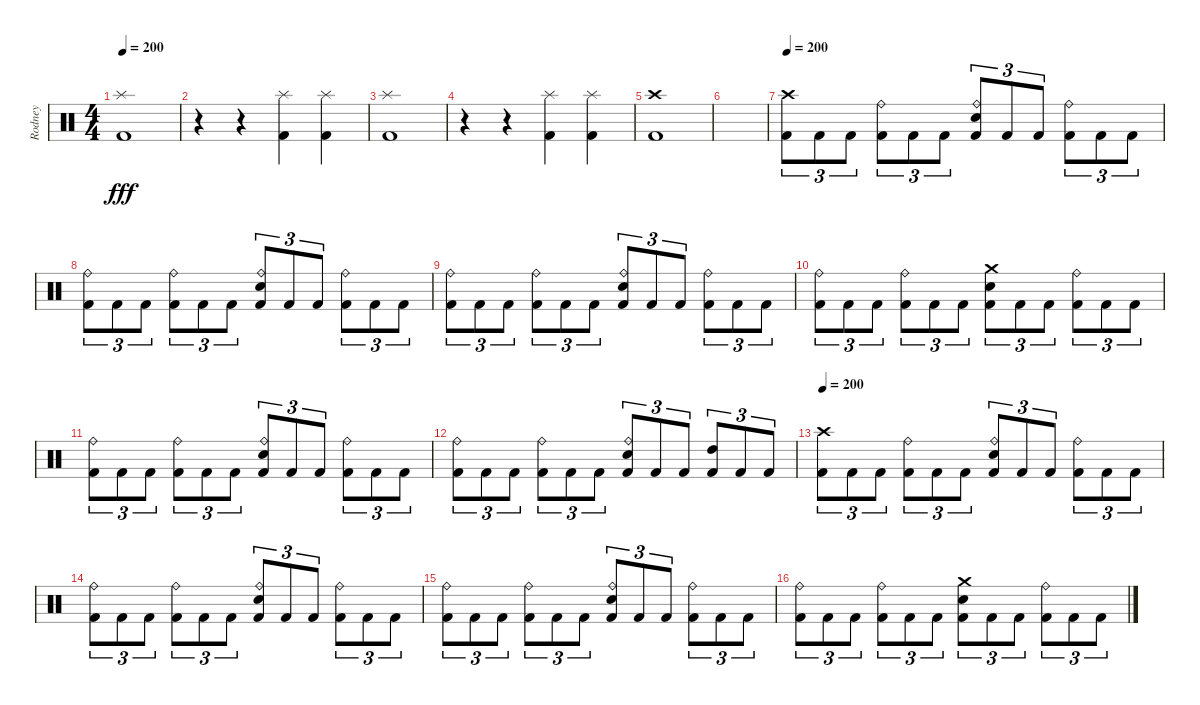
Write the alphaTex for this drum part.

\track ("Rodney" "Rodney") {instrument percussion}
\staff {score}
\articulation defaults
\ts (4 4)
\tempo 200
\clef neutral
\ks c
("Splash (hit)" "Kick (hit) 2").1{dy fff} |
r.4 r.4 ("Splash (hit)" "Kick (hit) 2").4 ("Splash (hit)" "Kick (hit) 2").4 |
("Splash (hit)" "Kick (hit) 2").1 |
r.4 r.4 ("Splash (hit)" "Kick (hit) 2").4 ("Splash (hit)" "Kick (hit) 2").4 |
("Crash high (hit)" "Kick (hit) 2").1 |
|
\tempo 200
("Crash high (hit)" "Kick (hit) 2").8{tu (3 2)} "Kick (hit) 2".8{tu (3 2)} "Kick (hit) 2".8{tu (3 2)} ("Ride (bell)" "Kick (hit) 2").8{tu (3 2)} "Kick (hit) 2".8{tu (3 2)} "Kick (hit) 2".8{tu (3 2)} ("Ride (bell)" "Snare (hit) 2" "Kick (hit) 2").8{tu (3 2)} "Kick (hit) 2".8{tu (3 2)} "Kick (hit) 2".8{tu (3 2)} ("Ride (bell)" "Kick (hit) 2").8{tu (3 2)} "Kick (hit) 2".8{tu (3 2)} "Kick (hit) 2".8{tu (3 2)} |
("Ride (bell)" "Kick (hit) 2").8{tu (3 2)} "Kick (hit) 2".8{tu (3 2)} "Kick (hit) 2".8{tu (3 2)} ("Ride (bell)" "Kick (hit) 2").8{tu (3 2)} "Kick (hit) 2".8{tu (3 2)} "Kick (hit) 2".8{tu (3 2)} ("Ride (bell)" "Snare (hit) 2" "Kick (hit) 2").8{tu (3 2)} "Kick (hit) 2".8{tu (3 2)} "Kick (hit) 2".8{tu (3 2)} ("Ride (bell)" "Kick (hit) 2").8{tu (3 2)} "Kick (hit) 2".8{tu (3 2)} "Kick (hit) 2".8{tu (3 2)} |
("Ride (bell)" "Kick (hit) 2").8{tu (3 2)} "Kick (hit) 2".8{tu (3 2)} "Kick (hit) 2".8{tu (3 2)} ("Ride (bell)" "Kick (hit) 2").8{tu (3 2)} "Kick (hit) 2".8{tu (3 2)} "Kick (hit) 2".8{tu (3 2)} ("Ride (bell)" "Snare (hit) 2" "Kick (hit) 2").8{tu (3 2)} "Kick (hit) 2".8{tu (3 2)} "Kick (hit) 2".8{tu (3 2)} ("Ride (bell)" "Kick (hit) 2").8{tu (3 2)} "Kick (hit) 2".8{tu (3 2)} "Kick (hit) 2".8{tu (3 2)} |
("Ride (bell)" "Kick (hit) 2").8{tu (3 2)} "Kick (hit) 2".8{tu (3 2)} "Kick (hit) 2".8{tu (3 2)} ("Ride (bell)" "Kick (hit) 2").8{tu (3 2)} "Kick (hit) 2".8{tu (3 2)} "Kick (hit) 2".8{tu (3 2)} ("Crash medium (hit)" "Snare (hit) 2" "Kick (hit) 2").8{tu (3 2)} "Kick (hit) 2".8{tu (3 2)} "Kick (hit) 2".8{tu (3 2)} ("Ride (bell)" "Kick (hit) 2").8{tu (3 2)} "Kick (hit) 2".8{tu (3 2)} "Kick (hit) 2".8{tu (3 2)} |
("Ride (bell)" "Kick (hit) 2").8{tu (3 2)} "Kick (hit) 2".8{tu (3 2)} "Kick (hit) 2".8{tu (3 2)} ("Ride (bell)" "Kick (hit) 2").8{tu (3 2)} "Kick (hit) 2".8{tu (3 2)} "Kick (hit) 2".8{tu (3 2)} ("Ride (bell)" "Snare (hit) 2" "Kick (hit) 2").8{tu (3 2)} "Kick (hit) 2".8{tu (3 2)} "Kick (hit) 2".8{tu (3 2)} ("Ride (bell)" "Kick (hit) 2").8{tu (3 2)} "Kick (hit) 2".8{tu (3 2)} "Kick (hit) 2".8{tu (3 2)} |
("Ride (bell)" "Kick (hit) 2").8{tu (3 2)} "Kick (hit) 2".8{tu (3 2)} "Kick (hit) 2".8{tu (3 2)} ("Ride (bell)" "Kick (hit) 2").8{tu (3 2)} "Kick (hit) 2".8{tu (3 2)} "Kick (hit) 2".8{tu (3 2)} ("Ride (bell)" "Snare (hit) 2" "Kick (hit) 2").8{tu (3 2)} "Kick (hit) 2".8{tu (3 2)} "Kick (hit) 2".8{tu (3 2)} ("High Tom (hit)" "Kick (hit) 2").8{tu (3 2)} "Kick (hit) 2".8{tu (3 2)} "Kick (hit) 2".8{tu (3 2)} |
\tempo 200
("Crash high (hit)" "Kick (hit) 2").8{tu (3 2)} "Kick (hit) 2".8{tu (3 2)} "Kick (hit) 2".8{tu (3 2)} ("Ride (bell)" "Kick (hit) 2").8{tu (3 2)} "Kick (hit) 2".8{tu (3 2)} "Kick (hit) 2".8{tu (3 2)} ("Ride (bell)" "Snare (hit) 2" "Kick (hit) 2").8{tu (3 2)} "Kick (hit) 2".8{tu (3 2)} "Kick (hit) 2".8{tu (3 2)} ("Ride (bell)" "Kick (hit) 2").8{tu (3 2)} "Kick (hit) 2".8{tu (3 2)} "Kick (hit) 2".8{tu (3 2)} |
("Ride (bell)" "Kick (hit) 2").8{tu (3 2)} "Kick (hit) 2".8{tu (3 2)} "Kick (hit) 2".8{tu (3 2)} ("Ride (bell)" "Kick (hit) 2").8{tu (3 2)} "Kick (hit) 2".8{tu (3 2)} "Kick (hit) 2".8{tu (3 2)} ("Ride (bell)" "Snare (hit) 2" "Kick (hit) 2").8{tu (3 2)} "Kick (hit) 2".8{tu (3 2)} "Kick (hit) 2".8{tu (3 2)} ("Ride (bell)" "Kick (hit) 2").8{tu (3 2)} "Kick (hit) 2".8{tu (3 2)} "Kick (hit) 2".8{tu (3 2)} |
("Ride (bell)" "Kick (hit) 2").8{tu (3 2)} "Kick (hit) 2".8{tu (3 2)} "Kick (hit) 2".8{tu (3 2)} ("Ride (bell)" "Kick (hit) 2").8{tu (3 2)} "Kick (hit) 2".8{tu (3 2)} "Kick (hit) 2".8{tu (3 2)} ("Ride (bell)" "Snare (hit) 2" "Kick (hit) 2").8{tu (3 2)} "Kick (hit) 2".8{tu (3 2)} "Kick (hit) 2".8{tu (3 2)} ("Ride (bell)" "Kick (hit) 2").8{tu (3 2)} "Kick (hit) 2".8{tu (3 2)} "Kick (hit) 2".8{tu (3 2)} |
("Ride (bell)" "Kick (hit) 2").8{tu (3 2)} "Kick (hit) 2".8{tu (3 2)} "Kick (hit) 2".8{tu (3 2)} ("Ride (bell)" "Kick (hit) 2").8{tu (3 2)} "Kick (hit) 2".8{tu (3 2)} "Kick (hit) 2".8{tu (3 2)} ("Crash medium (hit)" "Snare (hit) 2" "Kick (hit) 2").8{tu (3 2)} "Kick (hit) 2".8{tu (3 2)} "Kick (hit) 2".8{tu (3 2)} ("Ride (bell)" "Kick (hit) 2").8{tu (3 2)} "Kick (hit) 2".8{tu (3 2)} "Kick (hit) 2".8{tu (3 2)}
